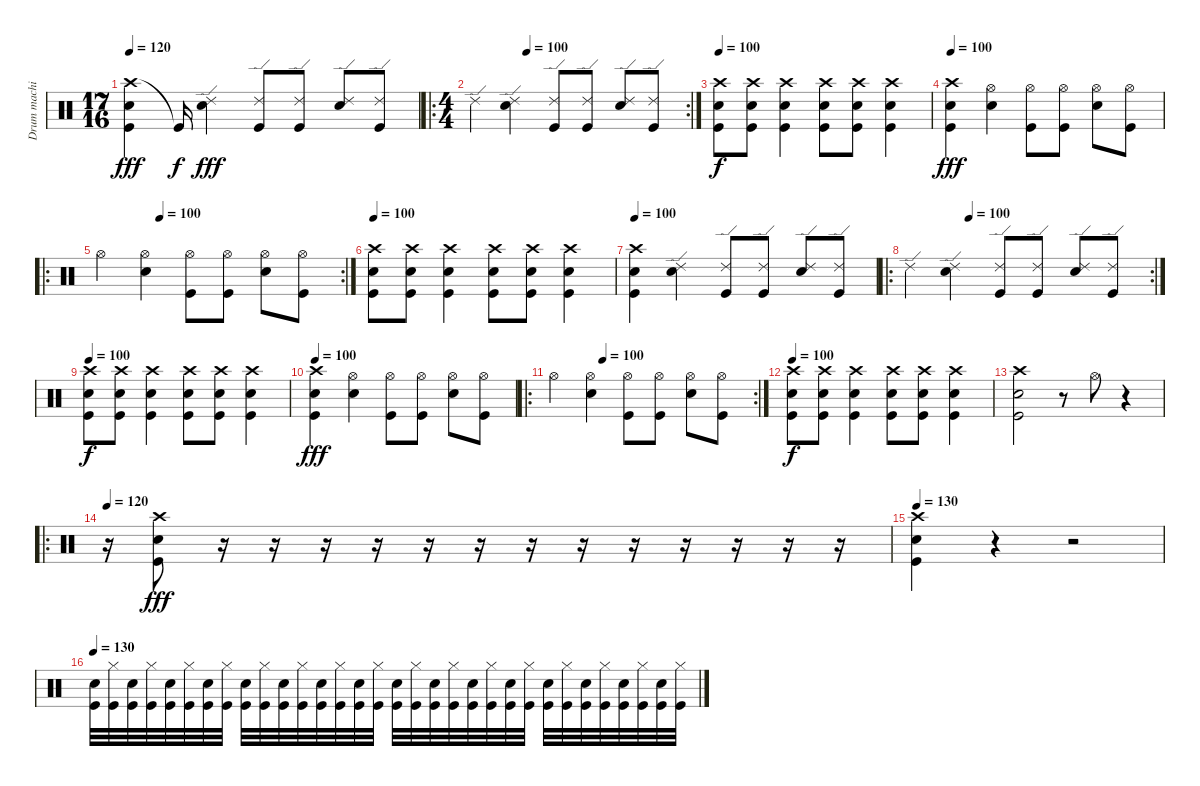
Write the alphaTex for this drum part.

\track ("Drum machine" "Drum machi") {instrument percussion}
\staff {score}
\articulation defaults
\ts (17 16)
\tempo 120
\tempo 100
\tempo 120
\clef neutral
\ks c
("Crash high (hit)" "Kick (hit)" "Snare (hit) 2").4{dy fff} "Kick (hit)"{t}.16{dy f} ("Snare (hit) 2" "Ride (edge) 2").4{dy fff} ("Ride (edge) 2" "Kick (hit)").8 ("Ride (edge) 2" "Kick (hit)").8 ("Ride (edge) 2" "Snare (hit) 2").8 ("Ride (edge) 2" "Kick (hit)").8 |
\ro
\rc 2
\ts (4 4)
\tempo (100 0.25)
"Ride (edge) 2".4 ("Snare (hit) 2" "Ride (edge) 2").4 ("Ride (edge) 2" "Kick (hit)").8 ("Ride (edge) 2" "Kick (hit)").8 ("Ride (edge) 2" "Snare (hit) 2").8 ("Ride (edge) 2" "Kick (hit)").8 |
\tempo 100
("Crash high (hit)" "Snare (hit) 2" "Kick (hit)").8{dy f} ("Crash high (hit)" "Snare (hit) 2" "Kick (hit)").8 ("Crash high (hit)" "Snare (hit) 2" "Kick (hit)").4 ("Crash high (hit)" "Snare (hit) 2" "Kick (hit)").8 ("Crash high (hit)" "Snare (hit) 2" "Kick (hit)").8 ("Crash high (hit)" "Snare (hit) 2" "Kick (hit)").4 |
\tempo 100
("Crash high (hit)" "Kick (hit)" "Snare (hit) 2").4{dy fff} ("Snare (hit) 2" "Hi-Hat (open)").4 ("Hi-Hat (open)" "Kick (hit)").8 ("Hi-Hat (open)" "Kick (hit)").8 ("Hi-Hat (open)" "Snare (hit) 2").8 ("Hi-Hat (open)" "Kick (hit)").8 |
\ro
\rc 2
\tempo (100 0.25)
"Hi-Hat (open)".4 ("Snare (hit) 2" "Hi-Hat (open)").4 ("Hi-Hat (open)" "Kick (hit)").8 ("Hi-Hat (open)" "Kick (hit)").8 ("Hi-Hat (open)" "Snare (hit) 2").8 ("Hi-Hat (open)" "Kick (hit)").8 |
\tempo 100
("Crash high (hit)" "Snare (hit) 2" "Kick (hit)").8 ("Crash high (hit)" "Snare (hit) 2" "Kick (hit)").8 ("Crash high (hit)" "Snare (hit) 2" "Kick (hit)").4 ("Crash high (hit)" "Snare (hit) 2" "Kick (hit)").8 ("Crash high (hit)" "Snare (hit) 2" "Kick (hit)").8 ("Crash high (hit)" "Snare (hit) 2" "Kick (hit)").4 |
\tempo 100
("Crash high (hit)" "Kick (hit)" "Snare (hit) 2").4 ("Snare (hit) 2" "Ride (edge) 2").4 ("Ride (edge) 2" "Kick (hit)").8 ("Ride (edge) 2" "Kick (hit)").8 ("Ride (edge) 2" "Snare (hit) 2").8 ("Ride (edge) 2" "Kick (hit)").8 |
\ro
\rc 2
\tempo (100 0.25)
"Ride (edge) 2".4 ("Snare (hit) 2" "Ride (edge) 2").4 ("Ride (edge) 2" "Kick (hit)").8 ("Ride (edge) 2" "Kick (hit)").8 ("Ride (edge) 2" "Snare (hit) 2").8 ("Ride (edge) 2" "Kick (hit)").8 |
\tempo 100
("Crash high (hit)" "Snare (hit) 2" "Kick (hit)").8{dy f} ("Crash high (hit)" "Snare (hit) 2" "Kick (hit)").8 ("Crash high (hit)" "Snare (hit) 2" "Kick (hit)").4 ("Crash high (hit)" "Snare (hit) 2" "Kick (hit)").8 ("Crash high (hit)" "Snare (hit) 2" "Kick (hit)").8 ("Crash high (hit)" "Snare (hit) 2" "Kick (hit)").4 |
\tempo 100
("Crash high (hit)" "Kick (hit)" "Snare (hit) 2").4{dy fff} ("Snare (hit) 2" "Hi-Hat (open)").4 ("Hi-Hat (open)" "Kick (hit)").8 ("Hi-Hat (open)" "Kick (hit)").8 ("Hi-Hat (open)" "Snare (hit) 2").8 ("Hi-Hat (open)" "Kick (hit)").8 |
\ro
\rc 2
\tempo (100 0.25)
"Hi-Hat (open)".4 ("Snare (hit) 2" "Hi-Hat (open)").4 ("Hi-Hat (open)" "Kick (hit)").8 ("Hi-Hat (open)" "Kick (hit)").8 ("Hi-Hat (open)" "Snare (hit) 2").8 ("Hi-Hat (open)" "Kick (hit)").8 |
\tempo 100
("Crash high (hit)" "Snare (hit) 2" "Kick (hit)").8{dy f} ("Crash high (hit)" "Snare (hit) 2" "Kick (hit)").8 ("Crash high (hit)" "Snare (hit) 2" "Kick (hit)").4 ("Crash high (hit)" "Snare (hit) 2" "Kick (hit)").8 ("Crash high (hit)" "Snare (hit) 2" "Kick (hit)").8 ("Crash high (hit)" "Snare (hit) 2" "Kick (hit)").4 |
("Crash high (hit)" "Snare (hit) 2" "Kick (hit)").2 r.8 "Hi-Hat (open)".8 r.4 |
\ro
\tempo 130
\tempo 120
r.16 ("Crash high (hit)" "Snare (hit) 2" "Kick (hit)").8{dy fff} r.16 r.16 r.16 r.16 r.16 r.16 r.16 r.16 r.16 r.16 r.16 r.16 r.16 |
\tempo 130
("Crash high (hit)" "Snare (hit) 2" "Kick (hit)").4 r.4 r.2 |
\tempo 130
("Snare (hit) 2" "Kick (hit)").32 ("Hi-Hat (closed)" "Kick (hit)").32 ("Snare (hit) 2" "Kick (hit)").32 ("Hi-Hat (closed)" "Kick (hit)").32 ("Snare (hit) 2" "Kick (hit)").32 ("Hi-Hat (closed)" "Kick (hit)").32 ("Snare (hit) 2" "Kick (hit)").32 ("Hi-Hat (closed)" "Kick (hit)").32 ("Snare (hit) 2" "Kick (hit)").32 ("Hi-Hat (closed)" "Kick (hit)").32 ("Snare (hit) 2" "Kick (hit)").32 ("Hi-Hat (closed)" "Kick (hit)").32 ("Snare (hit) 2" "Kick (hit)").32 ("Hi-Hat (closed)" "Kick (hit)").32 ("Snare (hit) 2" "Kick (hit)").32 ("Hi-Hat (closed)" "Kick (hit)").32 ("Snare (hit) 2" "Kick (hit)").32 ("Hi-Hat (closed)" "Kick (hit)").32 ("Snare (hit) 2" "Kick (hit)").32 ("Hi-Hat (closed)" "Kick (hit)").32 ("Snare (hit) 2" "Kick (hit)").32 ("Hi-Hat (closed)" "Kick (hit)").32 ("Snare (hit) 2" "Kick (hit)").32 ("Hi-Hat (closed)" "Kick (hit)").32 ("Snare (hit) 2" "Kick (hit)").32 ("Hi-Hat (closed)" "Kick (hit)").32 ("Snare (hit) 2" "Kick (hit)").32 ("Hi-Hat (closed)" "Kick (hit)").32 ("Snare (hit) 2" "Kick (hit)").32 ("Hi-Hat (closed)" "Kick (hit)").32 ("Snare (hit) 2" "Kick (hit)").32 ("Hi-Hat (closed)" "Kick (hit)").32
